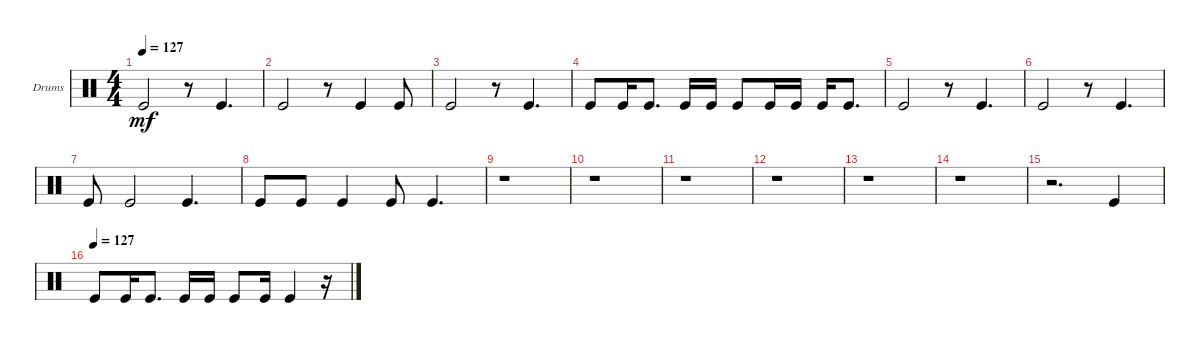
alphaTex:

\bracketExtendMode groupsimilarinstruments
\firstSystemTrackNameOrientation horizontal
\otherSystemsTrackNameOrientation horizontal
\track ("Drum Bass" "Drums") {instrument percussion}
\staff {score}
\articulation defaults
\ts (4 4)
\tempo 127
\clef neutral
\ks c "Kick (hit)".2{dy mf}
r.8 "Kick (hit)".4{d} |
"Kick (hit)".2 r.8 "Kick (hit)".4 "Kick (hit)".8 |
"Kick (hit)".2 r.8 "Kick (hit)".4{d} |
"Kick (hit)".8 "Kick (hit)".16 "Kick (hit)".8{d} "Kick (hit)".16 "Kick (hit)".16 "Kick (hit)".8 "Kick (hit)".16 "Kick (hit)".16 "Kick (hit)".16 "Kick (hit)".8{d} |
"Kick (hit)".2 r.8 "Kick (hit)".4{d} |
"Kick (hit)".2 r.8 "Kick (hit)".4{d} |
"Kick (hit)".8 "Kick (hit)".2 "Kick (hit)".4{d} |
"Kick (hit)".8 "Kick (hit)".8 "Kick (hit)".4 "Kick (hit)".8 "Kick (hit)".4{d} |
r.1 |
r.1 |
r.1 |
r.1 |
r.1 |
r.1 |
r.2{d} "Kick (hit)".4 |
\tempo (127)
"Kick (hit)".8 "Kick (hit)".16 "Kick (hit)".8{d} "Kick (hit)".16 "Kick (hit)".16 "Kick (hit)".8 "Kick (hit)".16 "Kick (hit)".4 r.16
